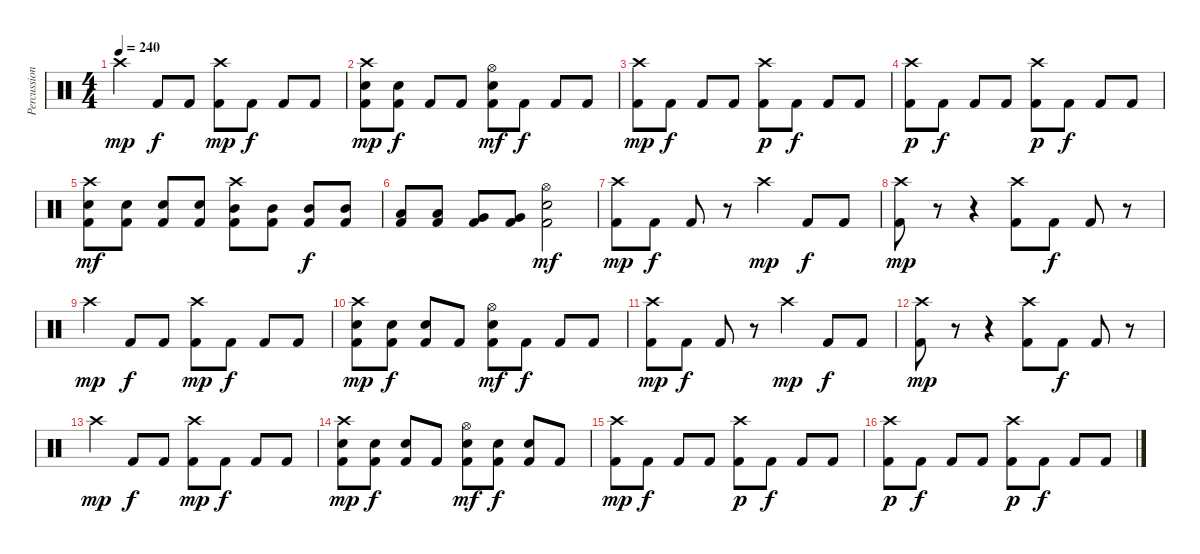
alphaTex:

\track ("Percussion" "Percussion") {instrument percussion}
\staff {score}
\articulation defaults
\ts (4 4)
\tempo 240
\clef neutral
\ks c "Crash high (hit)".4{dy mp} "Kick (hit) 2".8{dy f} "Kick (hit) 2".8
("Crash high (hit)" "Kick (hit) 2").8{dy mp} "Kick (hit) 2".8{dy f} "Kick (hit) 2".8 "Kick (hit) 2".8 |
("Crash high (hit)" "Electric Snare (hit)" "Kick (hit) 2").8{dy mp} ("Electric Snare (hit)" "Kick (hit) 2").8{dy f} "Kick (hit) 2".8 "Kick (hit) 2".8 ("Hi-Hat (open)" "Electric Snare (hit)" "Kick (hit) 2").8{dy mf} "Kick (hit) 2".8{dy f} "Kick (hit) 2".8 "Kick (hit) 2".8 |
("Crash high (hit)" "Kick (hit) 2").8{dy mp} "Kick (hit) 2".8{dy f} "Kick (hit) 2".8 "Kick (hit) 2".8 ("Crash high (hit)" "Kick (hit) 2").8{dy p} "Kick (hit) 2".8{dy f} "Kick (hit) 2".8 "Kick (hit) 2".8 |
("Crash high (hit)" "Kick (hit) 2").8{dy p} "Kick (hit) 2".8{dy f} "Kick (hit) 2".8 "Kick (hit) 2".8 ("Crash high (hit)" "Kick (hit) 2").8{dy p} "Kick (hit) 2".8{dy f} "Kick (hit) 2".8 "Kick (hit) 2".8 |
("Crash high (hit)" "Electric Snare (hit)" "Kick (hit) 2").8{dy mf} ("Electric Snare (hit)" "Kick (hit) 2").8 ("Electric Snare (hit)" "Kick (hit) 2").8 ("Electric Snare (hit)" "Kick (hit) 2").8 ("Crash high (hit)" "Mid Tom (hit)" "Kick (hit) 2").8 ("Mid Tom (hit)" "Kick (hit) 2").8 ("Mid Tom (hit)" "Kick (hit) 2").8{dy f} ("Mid Tom (hit)" "Kick (hit) 2").8 |
("Low Tom (hit)" "Kick (hit) 2").8 ("Low Tom (hit)" "Kick (hit) 2").8 ("Very Low Tom (hit)" "Kick (hit) 2").8 ("Very Low Tom (hit)" "Kick (hit) 2").8 ("Hi-Hat (open)" "Electric Snare (hit)" "Kick (hit) 2").2{dy mf} |
("Crash high (hit)" "Kick (hit) 2").8{dy mp} "Kick (hit) 2".8{dy f} "Kick (hit) 2".8 r.8 "Crash high (hit)".4{dy mp} "Kick (hit) 2".8{dy f} "Kick (hit) 2".8 |
("Crash high (hit)" "Kick (hit) 2").8{dy mp} r.8 r.4 ("Crash high (hit)" "Kick (hit) 2").8 "Kick (hit) 2".8{dy f} "Kick (hit) 2".8 r.8 |
"Crash high (hit)".4{dy mp} "Kick (hit) 2".8{dy f} "Kick (hit) 2".8 ("Crash high (hit)" "Kick (hit) 2").8{dy mp} "Kick (hit) 2".8{dy f} "Kick (hit) 2".8 "Kick (hit) 2".8 |
("Crash high (hit)" "Electric Snare (hit)" "Kick (hit) 2").8{dy mp} ("Electric Snare (hit)" "Kick (hit) 2").8{dy f} ("Electric Snare (hit)" "Kick (hit) 2").8 "Kick (hit) 2".8 ("Hi-Hat (open)" "Electric Snare (hit)" "Kick (hit) 2").8{dy mf} "Kick (hit) 2".8{dy f} "Kick (hit) 2".8 "Kick (hit) 2".8 |
("Crash high (hit)" "Kick (hit) 2").8{dy mp} "Kick (hit) 2".8{dy f} "Kick (hit) 2".8 r.8 "Crash high (hit)".4{dy mp} "Kick (hit) 2".8{dy f} "Kick (hit) 2".8 |
("Crash high (hit)" "Kick (hit) 2").8{dy mp} r.8 r.4 ("Crash high (hit)" "Kick (hit) 2").8 "Kick (hit) 2".8{dy f} "Kick (hit) 2".8 r.8 |
"Crash high (hit)".4{dy mp} "Kick (hit) 2".8{dy f} "Kick (hit) 2".8 ("Crash high (hit)" "Kick (hit) 2").8{dy mp} "Kick (hit) 2".8{dy f} "Kick (hit) 2".8 "Kick (hit) 2".8 |
("Crash high (hit)" "Electric Snare (hit)" "Kick (hit) 2").8{dy mp} ("Electric Snare (hit)" "Kick (hit) 2").8{dy f} ("Electric Snare (hit)" "Kick (hit) 2").8 "Kick (hit) 2".8 ("Hi-Hat (open)" "Electric Snare (hit)" "Kick (hit) 2").8{dy mf} ("Electric Snare (hit)" "Kick (hit) 2").8{dy f} ("Electric Snare (hit)" "Kick (hit) 2").8 "Kick (hit) 2".8 |
("Crash high (hit)" "Kick (hit) 2").8{dy mp} "Kick (hit) 2".8{dy f} "Kick (hit) 2".8 "Kick (hit) 2".8 ("Crash high (hit)" "Kick (hit) 2").8{dy p} "Kick (hit) 2".8{dy f} "Kick (hit) 2".8 "Kick (hit) 2".8 |
("Crash high (hit)" "Kick (hit) 2").8{dy p} "Kick (hit) 2".8{dy f} "Kick (hit) 2".8 "Kick (hit) 2".8 ("Crash high (hit)" "Kick (hit) 2").8{dy p} "Kick (hit) 2".8{dy f} "Kick (hit) 2".8 "Kick (hit) 2".8
